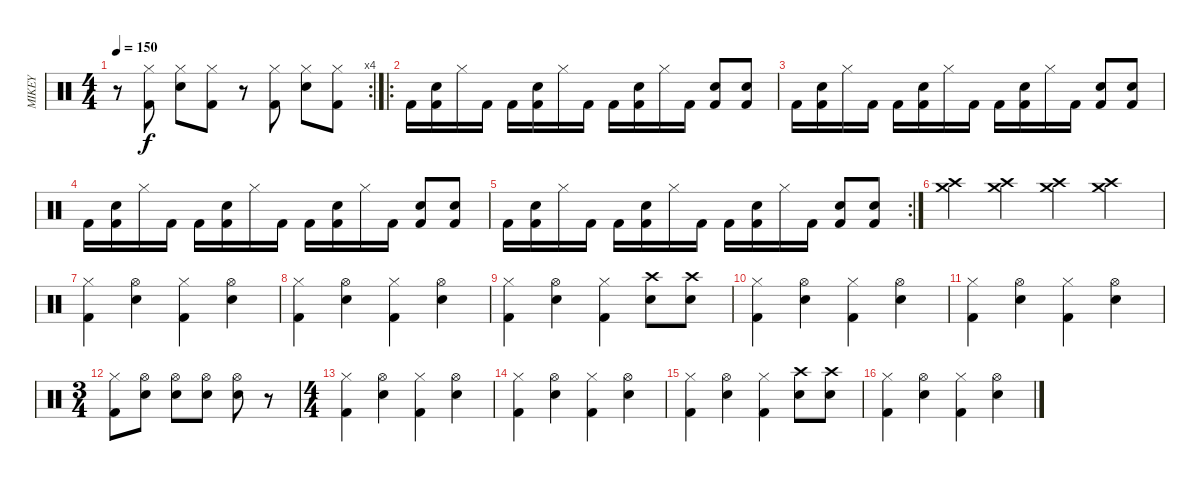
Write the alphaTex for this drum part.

\track ("MIKEY" "MIKEY") {instrument percussion}
\staff {score}
\articulation defaults
\rc 4
\ts (4 4)
\tempo 150
\clef neutral
\ks c
r.8{dy f} ("Hi-Hat (closed)" "Kick (hit) 2").8 ("Hi-Hat (closed)" "Snare (hit) 2").8 ("Hi-Hat (closed)" "Kick (hit) 2").8 r.8 ("Hi-Hat (closed)" "Kick (hit) 2").8 ("Hi-Hat (closed)" "Snare (hit) 2").8 ("Hi-Hat (closed)" "Kick (hit) 2").8 |
\ro "Kick (hit) 2".16
("Electric Snare (hit)" "Kick (hit) 2").16 "Hi-Hat (closed)".16 "Kick (hit) 2".16 "Kick (hit) 2".16 ("Electric Snare (hit)" "Kick (hit) 2").16 "Hi-Hat (closed)".16 "Kick (hit) 2".16 "Kick (hit) 2".16 ("Electric Snare (hit)" "Kick (hit) 2").16 "Hi-Hat (closed)".16 "Kick (hit) 2".16 ("Electric Snare (hit)" "Kick (hit) 2").8 ("Electric Snare (hit)" "Kick (hit) 2").8 |
"Kick (hit) 2".16 ("Electric Snare (hit)" "Kick (hit) 2").16 "Hi-Hat (closed)".16 "Kick (hit) 2".16 "Kick (hit) 2".16 ("Electric Snare (hit)" "Kick (hit) 2").16 "Hi-Hat (closed)".16 "Kick (hit) 2".16 "Kick (hit) 2".16 ("Electric Snare (hit)" "Kick (hit) 2").16 "Hi-Hat (closed)".16 "Kick (hit) 2".16 ("Electric Snare (hit)" "Kick (hit) 2").8 ("Electric Snare (hit)" "Kick (hit) 2").8 |
"Kick (hit) 2".16 ("Electric Snare (hit)" "Kick (hit) 2").16 "Hi-Hat (closed)".16 "Kick (hit) 2".16 "Kick (hit) 2".16 ("Electric Snare (hit)" "Kick (hit) 2").16 "Hi-Hat (closed)".16 "Kick (hit) 2".16 "Kick (hit) 2".16 ("Electric Snare (hit)" "Kick (hit) 2").16 "Hi-Hat (closed)".16 "Kick (hit) 2".16 ("Electric Snare (hit)" "Kick (hit) 2").8 ("Electric Snare (hit)" "Kick (hit) 2").8 |
\rc 2 "Kick (hit) 2".16
("Electric Snare (hit)" "Kick (hit) 2").16 "Hi-Hat (closed)".16 "Kick (hit) 2".16 "Kick (hit) 2".16 ("Electric Snare (hit)" "Kick (hit) 2").16 "Hi-Hat (closed)".16 "Kick (hit) 2".16 "Kick (hit) 2".16 ("Electric Snare (hit)" "Kick (hit) 2").16 "Hi-Hat (closed)".16 "Kick (hit) 2".16 ("Electric Snare (hit)" "Kick (hit) 2").8 ("Electric Snare (hit)" "Kick (hit) 2").8 |
("Crash medium (hit)" "Crash high (hit)").4 ("Crash medium (hit)" "Crash high (hit)").4 ("Crash medium (hit)" "Crash high (hit)").4 ("Crash medium (hit)" "Crash high (hit)").4 |
("Hi-Hat (closed)" "Kick (hit) 2").4 ("Hi-Hat (open)" "Snare (hit) 2").4 ("Hi-Hat (closed)" "Kick (hit) 2").4 ("Hi-Hat (open)" "Snare (hit) 2").4 |
("Hi-Hat (closed)" "Kick (hit) 2").4 ("Hi-Hat (open)" "Snare (hit) 2").4 ("Hi-Hat (closed)" "Kick (hit) 2").4 ("Hi-Hat (open)" "Snare (hit) 2").4 |
("Hi-Hat (closed)" "Kick (hit) 2").4 ("Hi-Hat (open)" "Snare (hit) 2").4 ("Hi-Hat (closed)" "Kick (hit) 2").4 ("Crash high (hit)" "Snare (hit) 2").8 ("Crash high (hit)" "Snare (hit) 2").8 |
("Hi-Hat (closed)" "Kick (hit) 2").4 ("Hi-Hat (open)" "Snare (hit) 2").4 ("Hi-Hat (closed)" "Kick (hit) 2").4 ("Hi-Hat (open)" "Snare (hit) 2").4 |
("Hi-Hat (closed)" "Kick (hit) 2").4 ("Hi-Hat (open)" "Snare (hit) 2").4 ("Hi-Hat (closed)" "Kick (hit) 2").4 ("Hi-Hat (open)" "Snare (hit) 2").4 |
\ts (3 4)
("Hi-Hat (closed)" "Kick (hit) 2").8 ("Hi-Hat (open)" "Snare (hit) 2").8 ("Hi-Hat (open)" "Snare (hit) 2").8 ("Hi-Hat (open)" "Snare (hit) 2").8 ("Hi-Hat (open)" "Snare (hit) 2").8 r.8 |
\ts (4 4)
("Hi-Hat (closed)" "Kick (hit) 2").4 ("Hi-Hat (open)" "Snare (hit) 2").4 ("Hi-Hat (closed)" "Kick (hit) 2").4 ("Hi-Hat (open)" "Snare (hit) 2").4 |
("Hi-Hat (closed)" "Kick (hit) 2").4 ("Hi-Hat (open)" "Snare (hit) 2").4 ("Hi-Hat (closed)" "Kick (hit) 2").4 ("Hi-Hat (open)" "Snare (hit) 2").4 |
("Hi-Hat (closed)" "Kick (hit) 2").4 ("Hi-Hat (open)" "Snare (hit) 2").4 ("Hi-Hat (closed)" "Kick (hit) 2").4 ("Crash high (hit)" "Snare (hit) 2").8 ("Crash high (hit)" "Snare (hit) 2").8 |
("Hi-Hat (closed)" "Kick (hit) 2").4 ("Hi-Hat (open)" "Snare (hit) 2").4 ("Hi-Hat (closed)" "Kick (hit) 2").4 ("Hi-Hat (open)" "Snare (hit) 2").4
